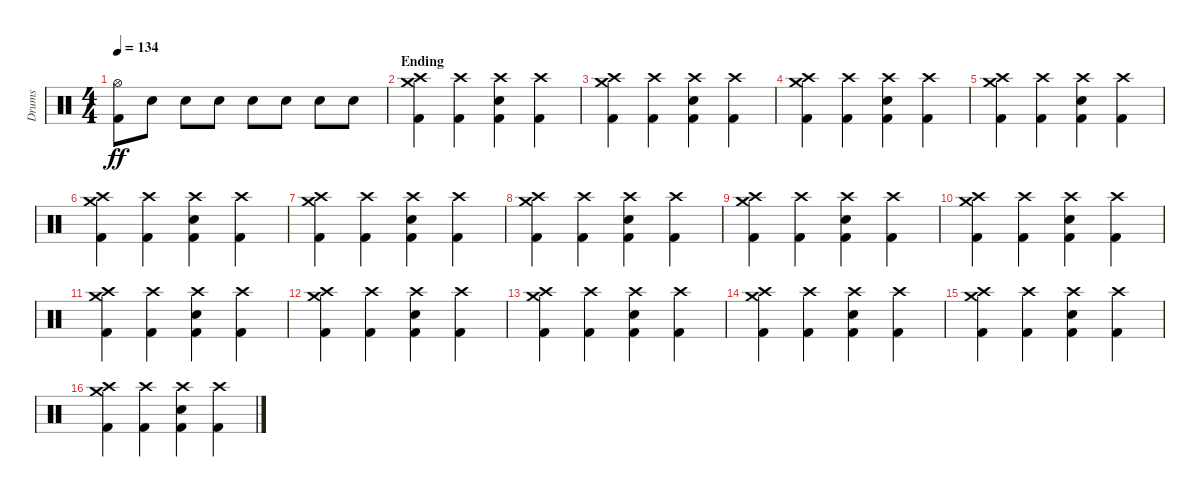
\track ("Drums" "Drums") {instrument percussion}
\staff {score}
\articulation defaults
\ts (4 4)
\tempo 134
\clef neutral
\ks c
("Hi-Hat (open)" "Kick (hit) 2").8{dy ff} "Snare (hit) 2".8 "Snare (hit) 2".8 "Snare (hit) 2".8 "Snare (hit) 2".8 "Snare (hit) 2".8 "Snare (hit) 2".8 "Snare (hit) 2".8 |
\section ("" "Ending")
("Crash high (hit)" "Crash medium (hit)" "Kick (hit) 2").4 ("Crash high (hit)" "Kick (hit) 2").4 ("Crash high (hit)" "Snare (hit) 2" "Kick (hit) 2").4 ("Crash high (hit)" "Kick (hit) 2").4 |
("Crash high (hit)" "Crash medium (hit)" "Kick (hit) 2").4 ("Crash high (hit)" "Kick (hit) 2").4 ("Crash high (hit)" "Snare (hit) 2" "Kick (hit) 2").4 ("Crash high (hit)" "Kick (hit) 2").4 |
("Crash high (hit)" "Crash medium (hit)" "Kick (hit) 2").4 ("Crash high (hit)" "Kick (hit) 2").4 ("Crash high (hit)" "Snare (hit) 2" "Kick (hit) 2").4 ("Crash high (hit)" "Kick (hit) 2").4 |
("Crash high (hit)" "Crash medium (hit)" "Kick (hit) 2").4 ("Crash high (hit)" "Kick (hit) 2").4 ("Crash high (hit)" "Snare (hit) 2" "Kick (hit) 2").4 ("Crash high (hit)" "Kick (hit) 2").4 |
("Crash high (hit)" "Crash medium (hit)" "Kick (hit) 2").4 ("Crash high (hit)" "Kick (hit) 2").4 ("Crash high (hit)" "Snare (hit) 2" "Kick (hit) 2").4 ("Crash high (hit)" "Kick (hit) 2").4 |
("Crash high (hit)" "Crash medium (hit)" "Kick (hit) 2").4 ("Crash high (hit)" "Kick (hit) 2").4 ("Crash high (hit)" "Snare (hit) 2" "Kick (hit) 2").4 ("Crash high (hit)" "Kick (hit) 2").4 |
("Crash high (hit)" "Crash medium (hit)" "Kick (hit) 2").4 ("Crash high (hit)" "Kick (hit) 2").4 ("Crash high (hit)" "Snare (hit) 2" "Kick (hit) 2").4 ("Crash high (hit)" "Kick (hit) 2").4 |
("Crash high (hit)" "Crash medium (hit)" "Kick (hit) 2").4 ("Crash high (hit)" "Kick (hit) 2").4 ("Crash high (hit)" "Snare (hit) 2" "Kick (hit) 2").4 ("Crash high (hit)" "Kick (hit) 2").4 |
("Crash high (hit)" "Crash medium (hit)" "Kick (hit) 2").4 ("Crash high (hit)" "Kick (hit) 2").4 ("Crash high (hit)" "Snare (hit) 2" "Kick (hit) 2").4 ("Crash high (hit)" "Kick (hit) 2").4 |
("Crash high (hit)" "Crash medium (hit)" "Kick (hit) 2").4 ("Crash high (hit)" "Kick (hit) 2").4 ("Crash high (hit)" "Snare (hit) 2" "Kick (hit) 2").4 ("Crash high (hit)" "Kick (hit) 2").4 |
("Crash high (hit)" "Crash medium (hit)" "Kick (hit) 2").4 ("Crash high (hit)" "Kick (hit) 2").4 ("Crash high (hit)" "Snare (hit) 2" "Kick (hit) 2").4 ("Crash high (hit)" "Kick (hit) 2").4 |
("Crash high (hit)" "Crash medium (hit)" "Kick (hit) 2").4 ("Crash high (hit)" "Kick (hit) 2").4 ("Crash high (hit)" "Snare (hit) 2" "Kick (hit) 2").4 ("Crash high (hit)" "Kick (hit) 2").4 |
("Crash high (hit)" "Crash medium (hit)" "Kick (hit) 2").4 ("Crash high (hit)" "Kick (hit) 2").4 ("Crash high (hit)" "Snare (hit) 2" "Kick (hit) 2").4 ("Crash high (hit)" "Kick (hit) 2").4 |
("Crash high (hit)" "Crash medium (hit)" "Kick (hit) 2").4 ("Crash high (hit)" "Kick (hit) 2").4 ("Crash high (hit)" "Snare (hit) 2" "Kick (hit) 2").4 ("Crash high (hit)" "Kick (hit) 2").4 |
("Crash high (hit)" "Crash medium (hit)" "Kick (hit) 2").4 ("Crash high (hit)" "Kick (hit) 2").4 ("Crash high (hit)" "Snare (hit) 2" "Kick (hit) 2").4 ("Crash high (hit)" "Kick (hit) 2").4
